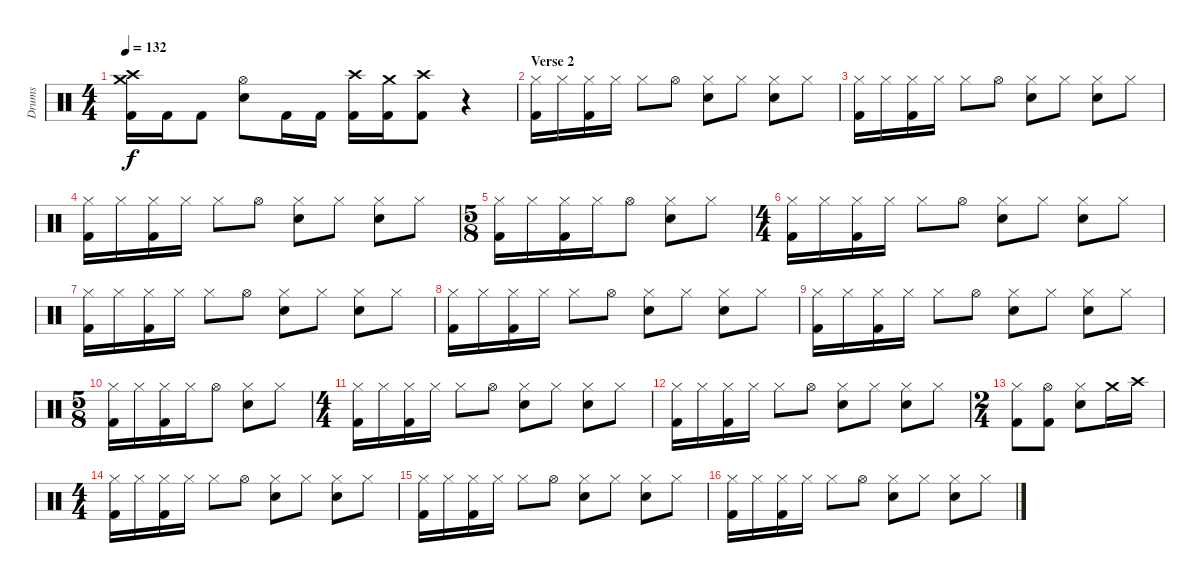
\track ("Drums" "Drums") {instrument percussion}
\staff {score}
\articulation defaults
\ts (4 4)
\tempo 132
\clef neutral
\ks c
("Crash high (hit)" "Crash medium (hit)" "Kick (hit) 2").16{dy f} "Kick (hit) 2".16 "Kick (hit) 2".8 ("Hi-Hat (open)" "Electric Snare (hit)").8 "Kick (hit) 2".16 "Kick (hit) 2".16 ("Crash high (hit)" "Kick (hit) 2").16 ("Crash medium (hit)" "Kick (hit) 2").16 ("Crash high (hit)" "Kick (hit) 2").8 r.4 |
\section ("" "Verse 2")
("Hi-Hat (closed)" "Kick (hit) 2").16 "Hi-Hat (closed)".16 ("Hi-Hat (closed)" "Kick (hit) 2").16 "Hi-Hat (closed)".16 "Hi-Hat (closed)".8 "Hi-Hat (open)".8 ("Hi-Hat (closed)" "Electric Snare (hit)").8 "Hi-Hat (closed)".8 ("Hi-Hat (closed)" "Electric Snare (hit)").8 "Hi-Hat (closed)".8 |
("Hi-Hat (closed)" "Kick (hit) 2").16 "Hi-Hat (closed)".16 ("Hi-Hat (closed)" "Kick (hit) 2").16 "Hi-Hat (closed)".16 "Hi-Hat (closed)".8 "Hi-Hat (open)".8 ("Hi-Hat (closed)" "Electric Snare (hit)").8 "Hi-Hat (closed)".8 ("Hi-Hat (closed)" "Electric Snare (hit)").8 "Hi-Hat (closed)".8 |
("Hi-Hat (closed)" "Kick (hit) 2").16 "Hi-Hat (closed)".16 ("Hi-Hat (closed)" "Kick (hit) 2").16 "Hi-Hat (closed)".16 "Hi-Hat (closed)".8 "Hi-Hat (open)".8 ("Hi-Hat (closed)" "Electric Snare (hit)").8 "Hi-Hat (closed)".8 ("Hi-Hat (closed)" "Electric Snare (hit)").8 "Hi-Hat (closed)".8 |
\ts (5 8)
("Hi-Hat (closed)" "Kick (hit) 2").16 "Hi-Hat (closed)".16 ("Hi-Hat (closed)" "Kick (hit) 2").16 "Hi-Hat (closed)".16 "Hi-Hat (open)".8 ("Hi-Hat (closed)" "Electric Snare (hit)").8 "Hi-Hat (closed)".8 |
\ts (4 4)
("Hi-Hat (closed)" "Kick (hit) 2").16 "Hi-Hat (closed)".16 ("Hi-Hat (closed)" "Kick (hit) 2").16 "Hi-Hat (closed)".16 "Hi-Hat (closed)".8 "Hi-Hat (open)".8 ("Hi-Hat (closed)" "Electric Snare (hit)").8 "Hi-Hat (closed)".8 ("Hi-Hat (closed)" "Electric Snare (hit)").8 "Hi-Hat (closed)".8 |
("Hi-Hat (closed)" "Kick (hit) 2").16 "Hi-Hat (closed)".16 ("Hi-Hat (closed)" "Kick (hit) 2").16 "Hi-Hat (closed)".16 "Hi-Hat (closed)".8 "Hi-Hat (open)".8 ("Hi-Hat (closed)" "Electric Snare (hit)").8 "Hi-Hat (closed)".8 ("Hi-Hat (closed)" "Electric Snare (hit)").8 "Hi-Hat (closed)".8 |
("Hi-Hat (closed)" "Kick (hit) 2").16 "Hi-Hat (closed)".16 ("Hi-Hat (closed)" "Kick (hit) 2").16 "Hi-Hat (closed)".16 "Hi-Hat (closed)".8 "Hi-Hat (open)".8 ("Hi-Hat (closed)" "Electric Snare (hit)").8 "Hi-Hat (closed)".8 ("Hi-Hat (closed)" "Electric Snare (hit)").8 "Hi-Hat (closed)".8 |
("Hi-Hat (closed)" "Kick (hit) 2").16 "Hi-Hat (closed)".16 ("Hi-Hat (closed)" "Kick (hit) 2").16 "Hi-Hat (closed)".16 "Hi-Hat (closed)".8 "Hi-Hat (open)".8 ("Hi-Hat (closed)" "Electric Snare (hit)").8 "Hi-Hat (closed)".8 ("Hi-Hat (closed)" "Electric Snare (hit)").8 "Hi-Hat (closed)".8 |
\ts (5 8)
("Hi-Hat (closed)" "Kick (hit) 2").16 "Hi-Hat (closed)".16 ("Hi-Hat (closed)" "Kick (hit) 2").16 "Hi-Hat (closed)".16 "Hi-Hat (open)".8 ("Hi-Hat (closed)" "Electric Snare (hit)").8 "Hi-Hat (closed)".8 |
\ts (4 4)
("Hi-Hat (closed)" "Kick (hit) 2").16 "Hi-Hat (closed)".16 ("Hi-Hat (closed)" "Kick (hit) 2").16 "Hi-Hat (closed)".16 "Hi-Hat (closed)".8 "Hi-Hat (open)".8 ("Hi-Hat (closed)" "Electric Snare (hit)").8 "Hi-Hat (closed)".8 ("Hi-Hat (closed)" "Electric Snare (hit)").8 "Hi-Hat (closed)".8 |
("Hi-Hat (closed)" "Kick (hit) 2").16 "Hi-Hat (closed)".16 ("Hi-Hat (closed)" "Kick (hit) 2").16 "Hi-Hat (closed)".16 "Hi-Hat (closed)".8 "Hi-Hat (open)".8 ("Hi-Hat (closed)" "Electric Snare (hit)").8 "Hi-Hat (closed)".8 ("Hi-Hat (closed)" "Electric Snare (hit)").8 "Hi-Hat (closed)".8 |
\ts (2 4)
("Hi-Hat (closed)" "Kick (hit) 2").8 ("Hi-Hat (open)" "Kick (hit) 2").8 ("Hi-Hat (closed)" "Electric Snare (hit)").8 "Crash medium (hit)".16 "Crash high (hit)".16 |
\ts (4 4)
("Hi-Hat (closed)" "Kick (hit) 2").16 "Hi-Hat (closed)".16 ("Hi-Hat (closed)" "Kick (hit) 2").16 "Hi-Hat (closed)".16 "Hi-Hat (closed)".8 "Hi-Hat (open)".8 ("Hi-Hat (closed)" "Electric Snare (hit)").8 "Hi-Hat (closed)".8 ("Hi-Hat (closed)" "Electric Snare (hit)").8 "Hi-Hat (closed)".8 |
("Hi-Hat (closed)" "Kick (hit) 2").16 "Hi-Hat (closed)".16 ("Hi-Hat (closed)" "Kick (hit) 2").16 "Hi-Hat (closed)".16 "Hi-Hat (closed)".8 "Hi-Hat (open)".8 ("Hi-Hat (closed)" "Electric Snare (hit)").8 "Hi-Hat (closed)".8 ("Hi-Hat (closed)" "Electric Snare (hit)").8 "Hi-Hat (closed)".8 |
("Hi-Hat (closed)" "Kick (hit) 2").16 "Hi-Hat (closed)".16 ("Hi-Hat (closed)" "Kick (hit) 2").16 "Hi-Hat (closed)".16 "Hi-Hat (closed)".8 "Hi-Hat (open)".8 ("Hi-Hat (closed)" "Electric Snare (hit)").8 "Hi-Hat (closed)".8 ("Hi-Hat (closed)" "Electric Snare (hit)").8 "Hi-Hat (closed)".8
